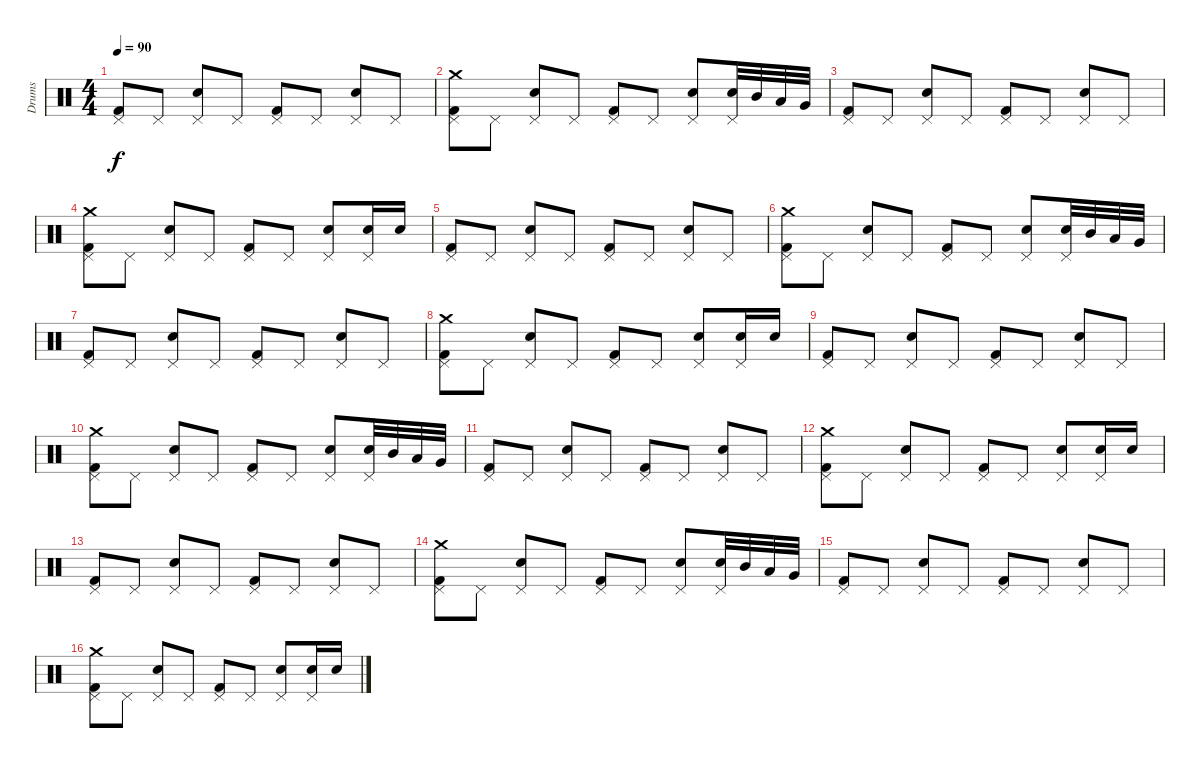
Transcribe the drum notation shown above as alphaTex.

\track ("Drums" "Drums") {instrument percussion}
\staff {score}
\articulation defaults
\ts (4 4)
\tempo 90
\clef neutral
\ks c
("Kick (hit) 2" "Pedal Hi-Hat (hit)").8{dy f} "Pedal Hi-Hat (hit)".8 ("Pedal Hi-Hat (hit)" "Electric Snare (hit)").8 "Pedal Hi-Hat (hit)".8 ("Pedal Hi-Hat (hit)" "Kick (hit) 2").8 "Pedal Hi-Hat (hit)".8 ("Pedal Hi-Hat (hit)" "Electric Snare (hit)").8 "Pedal Hi-Hat (hit)".8 |
("Pedal Hi-Hat (hit)" "Kick (hit) 2" "Crash medium (hit)").8 "Pedal Hi-Hat (hit)".8 ("Electric Snare (hit)" "Pedal Hi-Hat (hit)").8 "Pedal Hi-Hat (hit)".8 ("Pedal Hi-Hat (hit)" "Kick (hit) 2").8 "Pedal Hi-Hat (hit)".8 ("Pedal Hi-Hat (hit)" "Electric Snare (hit)").8 ("Pedal Hi-Hat (hit)" "Electric Snare (hit)").32 "Mid Tom (hit)".32 "Low Tom (hit)".32 "Very Low Tom (hit)".32 |
("Pedal Hi-Hat (hit)" "Kick (hit) 2").8 "Pedal Hi-Hat (hit)".8 ("Pedal Hi-Hat (hit)" "Electric Snare (hit)").8 "Pedal Hi-Hat (hit)".8 ("Kick (hit) 2" "Pedal Hi-Hat (hit)").8 "Pedal Hi-Hat (hit)".8 ("Electric Snare (hit)" "Pedal Hi-Hat (hit)").8 "Pedal Hi-Hat (hit)".8 |
("Kick (hit) 2" "Pedal Hi-Hat (hit)" "Crash medium (hit)").8 "Pedal Hi-Hat (hit)".8 ("Electric Snare (hit)" "Pedal Hi-Hat (hit)").8 "Pedal Hi-Hat (hit)".8 ("Kick (hit) 2" "Pedal Hi-Hat (hit)").8 "Pedal Hi-Hat (hit)".8 ("Electric Snare (hit)" "Pedal Hi-Hat (hit)").8 ("Electric Snare (hit)" "Pedal Hi-Hat (hit)").16 "Electric Snare (hit)".16 |
("Kick (hit) 2" "Pedal Hi-Hat (hit)").8 "Pedal Hi-Hat (hit)".8 ("Pedal Hi-Hat (hit)" "Electric Snare (hit)").8 "Pedal Hi-Hat (hit)".8 ("Pedal Hi-Hat (hit)" "Kick (hit) 2").8 "Pedal Hi-Hat (hit)".8 ("Pedal Hi-Hat (hit)" "Electric Snare (hit)").8 "Pedal Hi-Hat (hit)".8 |
("Pedal Hi-Hat (hit)" "Kick (hit) 2" "Crash medium (hit)").8 "Pedal Hi-Hat (hit)".8 ("Electric Snare (hit)" "Pedal Hi-Hat (hit)").8 "Pedal Hi-Hat (hit)".8 ("Pedal Hi-Hat (hit)" "Kick (hit) 2").8 "Pedal Hi-Hat (hit)".8 ("Pedal Hi-Hat (hit)" "Electric Snare (hit)").8 ("Pedal Hi-Hat (hit)" "Electric Snare (hit)").32 "Mid Tom (hit)".32 "Low Tom (hit)".32 "Very Low Tom (hit)".32 |
("Pedal Hi-Hat (hit)" "Kick (hit) 2").8 "Pedal Hi-Hat (hit)".8 ("Pedal Hi-Hat (hit)" "Electric Snare (hit)").8 "Pedal Hi-Hat (hit)".8 ("Kick (hit) 2" "Pedal Hi-Hat (hit)").8 "Pedal Hi-Hat (hit)".8 ("Electric Snare (hit)" "Pedal Hi-Hat (hit)").8 "Pedal Hi-Hat (hit)".8 |
("Kick (hit) 2" "Pedal Hi-Hat (hit)" "Crash medium (hit)").8 "Pedal Hi-Hat (hit)".8 ("Electric Snare (hit)" "Pedal Hi-Hat (hit)").8 "Pedal Hi-Hat (hit)".8 ("Kick (hit) 2" "Pedal Hi-Hat (hit)").8 "Pedal Hi-Hat (hit)".8 ("Electric Snare (hit)" "Pedal Hi-Hat (hit)").8 ("Electric Snare (hit)" "Pedal Hi-Hat (hit)").16 "Electric Snare (hit)".16 |
("Kick (hit) 2" "Pedal Hi-Hat (hit)").8 "Pedal Hi-Hat (hit)".8 ("Pedal Hi-Hat (hit)" "Electric Snare (hit)").8 "Pedal Hi-Hat (hit)".8 ("Pedal Hi-Hat (hit)" "Kick (hit) 2").8 "Pedal Hi-Hat (hit)".8 ("Pedal Hi-Hat (hit)" "Electric Snare (hit)").8 "Pedal Hi-Hat (hit)".8 |
("Pedal Hi-Hat (hit)" "Kick (hit) 2" "Crash medium (hit)").8 "Pedal Hi-Hat (hit)".8 ("Electric Snare (hit)" "Pedal Hi-Hat (hit)").8 "Pedal Hi-Hat (hit)".8 ("Pedal Hi-Hat (hit)" "Kick (hit) 2").8 "Pedal Hi-Hat (hit)".8 ("Pedal Hi-Hat (hit)" "Electric Snare (hit)").8 ("Pedal Hi-Hat (hit)" "Electric Snare (hit)").32 "Mid Tom (hit)".32 "Low Tom (hit)".32 "Very Low Tom (hit)".32 |
("Pedal Hi-Hat (hit)" "Kick (hit) 2").8 "Pedal Hi-Hat (hit)".8 ("Pedal Hi-Hat (hit)" "Electric Snare (hit)").8 "Pedal Hi-Hat (hit)".8 ("Kick (hit) 2" "Pedal Hi-Hat (hit)").8 "Pedal Hi-Hat (hit)".8 ("Electric Snare (hit)" "Pedal Hi-Hat (hit)").8 "Pedal Hi-Hat (hit)".8 |
("Kick (hit) 2" "Pedal Hi-Hat (hit)" "Crash medium (hit)").8 "Pedal Hi-Hat (hit)".8 ("Electric Snare (hit)" "Pedal Hi-Hat (hit)").8 "Pedal Hi-Hat (hit)".8 ("Kick (hit) 2" "Pedal Hi-Hat (hit)").8 "Pedal Hi-Hat (hit)".8 ("Electric Snare (hit)" "Pedal Hi-Hat (hit)").8 ("Electric Snare (hit)" "Pedal Hi-Hat (hit)").16 "Electric Snare (hit)".16 |
("Kick (hit) 2" "Pedal Hi-Hat (hit)").8 "Pedal Hi-Hat (hit)".8 ("Pedal Hi-Hat (hit)" "Electric Snare (hit)").8 "Pedal Hi-Hat (hit)".8 ("Pedal Hi-Hat (hit)" "Kick (hit) 2").8 "Pedal Hi-Hat (hit)".8 ("Pedal Hi-Hat (hit)" "Electric Snare (hit)").8 "Pedal Hi-Hat (hit)".8 |
("Pedal Hi-Hat (hit)" "Kick (hit) 2" "Crash medium (hit)").8 "Pedal Hi-Hat (hit)".8 ("Electric Snare (hit)" "Pedal Hi-Hat (hit)").8 "Pedal Hi-Hat (hit)".8 ("Pedal Hi-Hat (hit)" "Kick (hit) 2").8 "Pedal Hi-Hat (hit)".8 ("Pedal Hi-Hat (hit)" "Electric Snare (hit)").8 ("Pedal Hi-Hat (hit)" "Electric Snare (hit)").32 "Mid Tom (hit)".32 "Low Tom (hit)".32 "Very Low Tom (hit)".32 |
("Pedal Hi-Hat (hit)" "Kick (hit) 2").8 "Pedal Hi-Hat (hit)".8 ("Pedal Hi-Hat (hit)" "Electric Snare (hit)").8 "Pedal Hi-Hat (hit)".8 ("Kick (hit) 2" "Pedal Hi-Hat (hit)").8 "Pedal Hi-Hat (hit)".8 ("Pedal Hi-Hat (hit)" "Electric Snare (hit)").8 "Pedal Hi-Hat (hit)".8 |
("Kick (hit) 2" "Crash medium (hit)" "Pedal Hi-Hat (hit)").8 "Pedal Hi-Hat (hit)".8 ("Electric Snare (hit)" "Pedal Hi-Hat (hit)").8 "Pedal Hi-Hat (hit)".8 ("Pedal Hi-Hat (hit)" "Kick (hit) 2").8 "Pedal Hi-Hat (hit)".8 ("Electric Snare (hit)" "Pedal Hi-Hat (hit)").8 ("Electric Snare (hit)" "Pedal Hi-Hat (hit)").16 "Electric Snare (hit)".16
